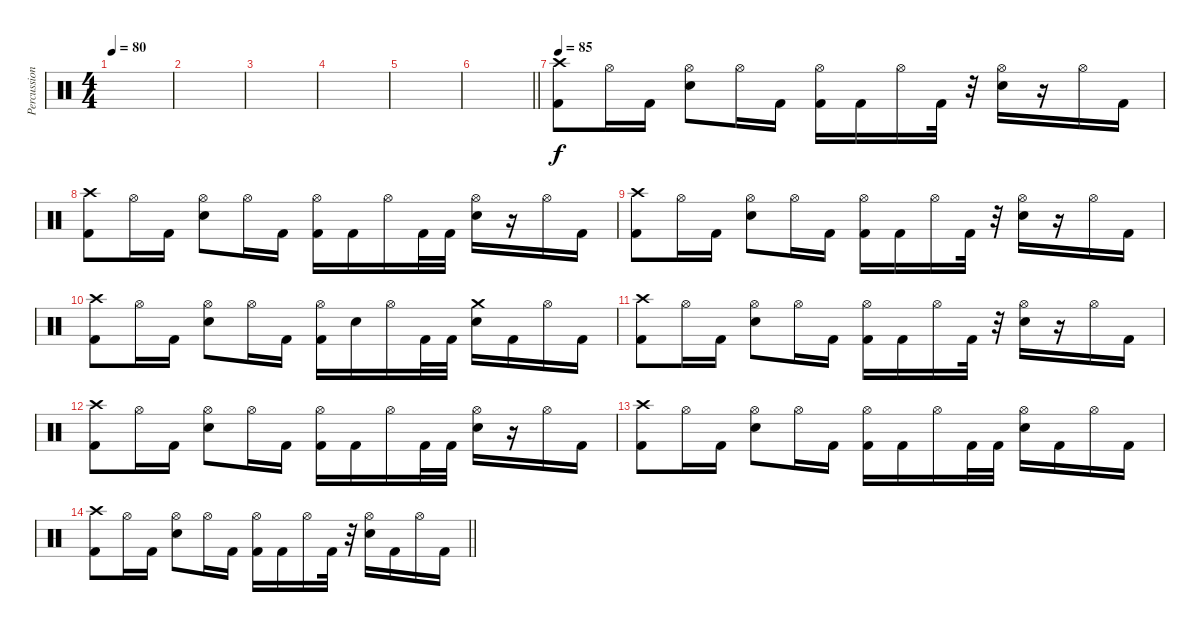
\track ("Percussion" "Percussion") {instrument percussion}
\staff {score}
\articulation defaults
\ts (4 4)
\tempo 80
\clef neutral
\ks c
|
|
|
|
|
\barLineRight lightlight
|
\tempo 85
("Crash high (hit)" "Kick (hit) 2").8 "Hi-Hat (open)".16 "Kick (hit) 2".16 ("Hi-Hat (open)" "Electric Snare (hit)").8 "Hi-Hat (open)".16 "Kick (hit) 2".16 ("Hi-Hat (open)" "Kick (hit) 2").16 "Kick (hit) 2".16 "Hi-Hat (open)".16 "Kick (hit) 2".32 r.32 ("Hi-Hat (open)" "Electric Snare (hit)").16 r.16 "Hi-Hat (open)".16 "Kick (hit) 2".16 |
("Crash high (hit)" "Kick (hit) 2").8 "Hi-Hat (open)".16 "Kick (hit) 2".16 ("Hi-Hat (open)" "Electric Snare (hit)").8 "Hi-Hat (open)".16 "Kick (hit) 2".16 ("Hi-Hat (open)" "Kick (hit) 2").16 "Kick (hit) 2".16 "Hi-Hat (open)".16 "Kick (hit) 2".32 "Kick (hit) 2".32 ("Hi-Hat (open)" "Electric Snare (hit)").16 r.16 "Hi-Hat (open)".16 "Kick (hit) 2".16 |
("Crash high (hit)" "Kick (hit) 2").8 "Hi-Hat (open)".16 "Kick (hit) 2".16 ("Hi-Hat (open)" "Electric Snare (hit)").8 "Hi-Hat (open)".16 "Kick (hit) 2".16 ("Hi-Hat (open)" "Kick (hit) 2").16 "Kick (hit) 2".16 "Hi-Hat (open)".16 "Kick (hit) 2".32 r.32 ("Hi-Hat (open)" "Electric Snare (hit)").16 r.16 "Hi-Hat (open)".16 "Kick (hit) 2".16 |
("Crash high (hit)" "Kick (hit) 2").8 "Hi-Hat (open)".16 "Kick (hit) 2".16 ("Hi-Hat (open)" "Electric Snare (hit)").8 "Hi-Hat (open)".16 "Kick (hit) 2".16 ("Hi-Hat (open)" "Kick (hit) 2").16 "Electric Snare (hit)".16 "Hi-Hat (open)".16 "Kick (hit) 2".32 "Kick (hit) 2".32 ("Crash medium (hit)" "Electric Snare (hit)").16 "Kick (hit) 2".16 "Hi-Hat (open)".16 "Kick (hit) 2".16 |
("Crash high (hit)" "Kick (hit) 2").8 "Hi-Hat (open)".16 "Kick (hit) 2".16 ("Hi-Hat (open)" "Electric Snare (hit)").8 "Hi-Hat (open)".16 "Kick (hit) 2".16 ("Hi-Hat (open)" "Kick (hit) 2").16 "Kick (hit) 2".16 "Hi-Hat (open)".16 "Kick (hit) 2".32 r.32 ("Hi-Hat (open)" "Electric Snare (hit)").16 r.16 "Hi-Hat (open)".16 "Kick (hit) 2".16 |
("Crash high (hit)" "Kick (hit) 2").8 "Hi-Hat (open)".16 "Kick (hit) 2".16 ("Hi-Hat (open)" "Electric Snare (hit)").8 "Hi-Hat (open)".16 "Kick (hit) 2".16 ("Hi-Hat (open)" "Kick (hit) 2").16 "Kick (hit) 2".16 "Hi-Hat (open)".16 "Kick (hit) 2".32 "Kick (hit) 2".32 ("Hi-Hat (open)" "Electric Snare (hit)").16 r.16 "Hi-Hat (open)".16 "Kick (hit) 2".16 |
("Crash high (hit)" "Kick (hit) 2").8 "Hi-Hat (open)".16 "Kick (hit) 2".16 ("Hi-Hat (open)" "Electric Snare (hit)").8 "Hi-Hat (open)".16 "Kick (hit) 2".16 ("Hi-Hat (open)" "Kick (hit) 2").16 "Kick (hit) 2".16 "Hi-Hat (open)".16 "Kick (hit) 2".32 "Kick (hit) 2".32 ("Hi-Hat (open)" "Electric Snare (hit)").16 "Kick (hit) 2".16 "Hi-Hat (open)".16 "Kick (hit) 2".16 |
\barLineRight lightlight
("Crash high (hit)" "Kick (hit) 2").8 "Hi-Hat (open)".16 "Kick (hit) 2".16 ("Hi-Hat (open)" "Electric Snare (hit)").8 "Hi-Hat (open)".16 "Kick (hit) 2".16 ("Hi-Hat (open)" "Kick (hit) 2").16 "Kick (hit) 2".16 "Hi-Hat (open)".16 "Kick (hit) 2".32 r.32 ("Hi-Hat (open)" "Electric Snare (hit)").16 "Kick (hit) 2".16 "Hi-Hat (open)".16 "Kick (hit) 2".16
